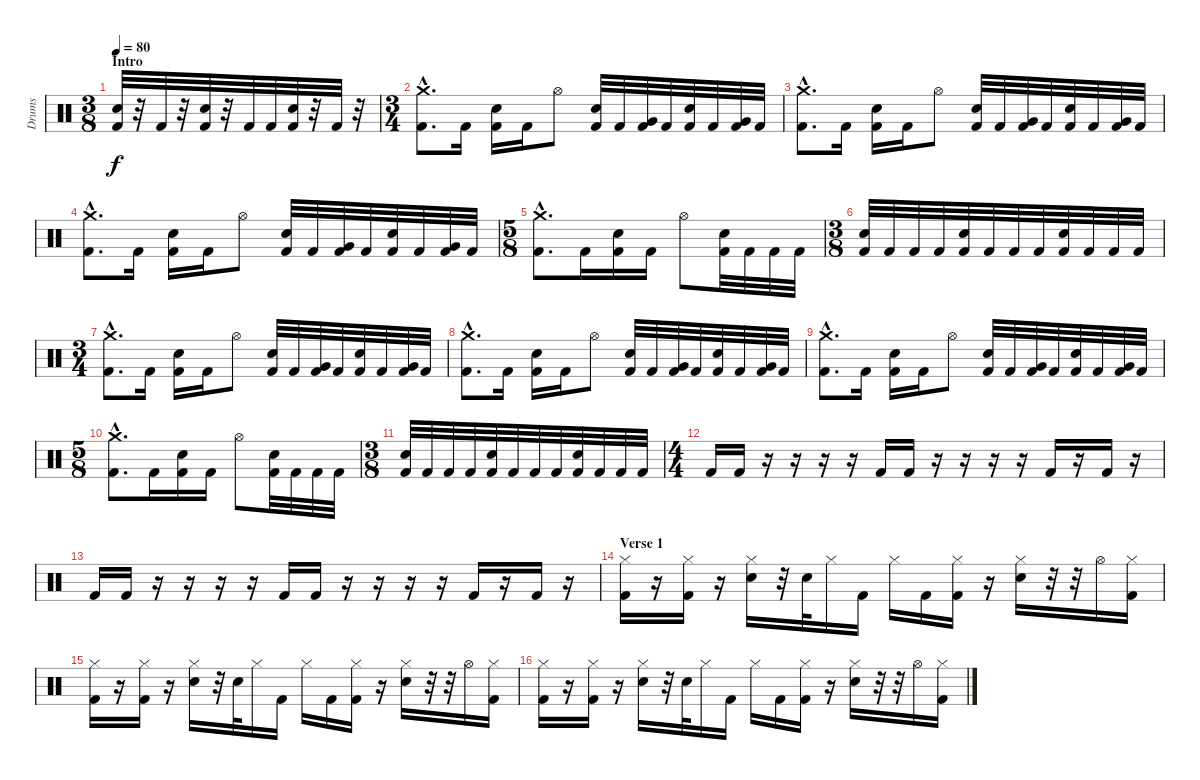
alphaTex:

\track ("Drums" "Drums") {instrument percussion}
\staff {score}
\articulation defaults
\ts (3 8)
\section ("" "Intro")
\tempo 80
\clef neutral
\ks c
("Snare (hit) 2" "Kick (hit) 2").32{dy f} r.32 "Kick (hit) 2".32 r.32 ("Snare (hit) 2" "Kick (hit) 2").32 r.32 "Kick (hit) 2".32 "Kick (hit) 2".32 ("Snare (hit) 2" "Kick (hit) 2").32 r.32 "Kick (hit) 2".32 r.32 |
\ts (3 4)
("Crash medium (hit)"{hac} "Kick (hit) 2"{hac}).8{d} "Kick (hit) 2".16 ("Snare (hit) 2" "Kick (hit) 2").16 "Kick (hit) 2".16 "Hi-Hat (open)".8 ("Snare (hit) 2" "Kick (hit) 2").32 "Kick (hit) 2".32 ("Very Low Tom (hit)" "Kick (hit) 2").32 "Kick (hit) 2".32 ("Snare (hit) 2" "Kick (hit) 2").32 "Kick (hit) 2".32 ("Very Low Tom (hit)" "Kick (hit) 2").32 "Kick (hit) 2".32 |
("Crash medium (hit)"{hac} "Kick (hit) 2"{hac}).8{d} "Kick (hit) 2".16 ("Snare (hit) 2" "Kick (hit) 2").16 "Kick (hit) 2".16 "Hi-Hat (open)".8 ("Snare (hit) 2" "Kick (hit) 2").32 "Kick (hit) 2".32 ("Very Low Tom (hit)" "Kick (hit) 2").32 "Kick (hit) 2".32 ("Snare (hit) 2" "Kick (hit) 2").32 "Kick (hit) 2".32 ("Very Low Tom (hit)" "Kick (hit) 2").32 "Kick (hit) 2".32 |
("Crash medium (hit)"{hac} "Kick (hit) 2"{hac}).8{d} "Kick (hit) 2".16 ("Snare (hit) 2" "Kick (hit) 2").16 "Kick (hit) 2".16 "Hi-Hat (open)".8 ("Snare (hit) 2" "Kick (hit) 2").32 "Kick (hit) 2".32 ("Very Low Tom (hit)" "Kick (hit) 2").32 "Kick (hit) 2".32 ("Snare (hit) 2" "Kick (hit) 2").32 "Kick (hit) 2".32 ("Very Low Tom (hit)" "Kick (hit) 2").32 "Kick (hit) 2".32 |
\ts (5 8)
("Crash medium (hit)"{hac} "Kick (hit) 2"{hac}).8{d} "Kick (hit) 2".16 ("Snare (hit) 2" "Kick (hit) 2").16 "Kick (hit) 2".16 "Hi-Hat (open)".8 ("Snare (hit) 2" "Kick (hit) 2").32 "Kick (hit) 2".32 "Kick (hit) 2".32 "Kick (hit) 2".32 |
\ts (3 8)
("Snare (hit) 2" "Kick (hit) 2").32 "Kick (hit) 2".32 "Kick (hit) 2".32 "Kick (hit) 2".32 ("Snare (hit) 2" "Kick (hit) 2").32 "Kick (hit) 2".32 "Kick (hit) 2".32 "Kick (hit) 2".32 ("Snare (hit) 2" "Kick (hit) 2").32 "Kick (hit) 2".32 "Kick (hit) 2".32 "Kick (hit) 2".32 |
\ts (3 4)
("Crash medium (hit)"{hac} "Kick (hit) 2"{hac}).8{d} "Kick (hit) 2".16 ("Snare (hit) 2" "Kick (hit) 2").16 "Kick (hit) 2".16 "Hi-Hat (open)".8 ("Snare (hit) 2" "Kick (hit) 2").32 "Kick (hit) 2".32 ("Very Low Tom (hit)" "Kick (hit) 2").32 "Kick (hit) 2".32 ("Snare (hit) 2" "Kick (hit) 2").32 "Kick (hit) 2".32 ("Very Low Tom (hit)" "Kick (hit) 2").32 "Kick (hit) 2".32 |
("Crash medium (hit)"{hac} "Kick (hit) 2"{hac}).8{d} "Kick (hit) 2".16 ("Snare (hit) 2" "Kick (hit) 2").16 "Kick (hit) 2".16 "Hi-Hat (open)".8 ("Snare (hit) 2" "Kick (hit) 2").32 "Kick (hit) 2".32 ("Very Low Tom (hit)" "Kick (hit) 2").32 "Kick (hit) 2".32 ("Snare (hit) 2" "Kick (hit) 2").32 "Kick (hit) 2".32 ("Very Low Tom (hit)" "Kick (hit) 2").32 "Kick (hit) 2".32 |
("Crash medium (hit)"{hac} "Kick (hit) 2"{hac}).8{d} "Kick (hit) 2".16 ("Snare (hit) 2" "Kick (hit) 2").16 "Kick (hit) 2".16 "Hi-Hat (open)".8 ("Snare (hit) 2" "Kick (hit) 2").32 "Kick (hit) 2".32 ("Very Low Tom (hit)" "Kick (hit) 2").32 "Kick (hit) 2".32 ("Snare (hit) 2" "Kick (hit) 2").32 "Kick (hit) 2".32 ("Very Low Tom (hit)" "Kick (hit) 2").32 "Kick (hit) 2".32 |
\ts (5 8)
("Crash medium (hit)"{hac} "Kick (hit) 2"{hac}).8{d} "Kick (hit) 2".16 ("Snare (hit) 2" "Kick (hit) 2").16 "Kick (hit) 2".16 "Hi-Hat (open)".8 ("Snare (hit) 2" "Kick (hit) 2").32 "Kick (hit) 2".32 "Kick (hit) 2".32 "Kick (hit) 2".32 |
\ts (3 8)
("Snare (hit) 2" "Kick (hit) 2").32 "Kick (hit) 2".32 "Kick (hit) 2".32 "Kick (hit) 2".32 ("Snare (hit) 2" "Kick (hit) 2").32 "Kick (hit) 2".32 "Kick (hit) 2".32 "Kick (hit) 2".32 ("Snare (hit) 2" "Kick (hit) 2").32 "Kick (hit) 2".32 "Kick (hit) 2".32 "Kick (hit) 2".32 |
\ts (4 4)
"Kick (hit) 2".16 "Kick (hit) 2".16 r.16 r.16 r.16 r.16 "Kick (hit) 2".16 "Kick (hit) 2".16 r.16 r.16 r.16 r.16 "Kick (hit) 2".16 r.16 "Kick (hit) 2".16 r.16 |
"Kick (hit) 2".16 "Kick (hit) 2".16 r.16 r.16 r.16 r.16 "Kick (hit) 2".16 "Kick (hit) 2".16 r.16 r.16 r.16 r.16 "Kick (hit) 2".16 r.16 "Kick (hit) 2".16 r.16 |
\section ("" "Verse 1")
("Hi-Hat (closed)" "Kick (hit) 2").16 r.16 ("Hi-Hat (closed)" "Kick (hit) 2").16 r.16 ("Hi-Hat (closed)" "Snare (hit) 2").16 r.32 "Snare (hit) 2".32 "Hi-Hat (closed)".16 "Kick (hit) 2".16 "Hi-Hat (closed)".16 "Kick (hit) 2".16 ("Hi-Hat (closed)" "Kick (hit) 2").16 r.16 ("Hi-Hat (closed)" "Snare (hit) 2").16 r.32 r.32 "Hi-Hat (open)".16 ("Hi-Hat (closed)" "Kick (hit) 2").16 |
("Hi-Hat (closed)" "Kick (hit) 2").16 r.16 ("Hi-Hat (closed)" "Kick (hit) 2").16 r.16 ("Hi-Hat (closed)" "Snare (hit) 2").16 r.32 "Snare (hit) 2".32 "Hi-Hat (closed)".16 "Kick (hit) 2".16 "Hi-Hat (closed)".16 "Kick (hit) 2".16 ("Hi-Hat (closed)" "Kick (hit) 2").16 r.16 ("Hi-Hat (closed)" "Snare (hit) 2").16 r.32 r.32 "Hi-Hat (open)".16 ("Hi-Hat (closed)" "Kick (hit) 2").16 |
("Hi-Hat (closed)" "Kick (hit) 2").16 r.16 ("Hi-Hat (closed)" "Kick (hit) 2").16 r.16 ("Hi-Hat (closed)" "Snare (hit) 2").16 r.32 "Snare (hit) 2".32 "Hi-Hat (closed)".16 "Kick (hit) 2".16 "Hi-Hat (closed)".16 "Kick (hit) 2".16 ("Hi-Hat (closed)" "Kick (hit) 2").16 r.16 ("Hi-Hat (closed)" "Snare (hit) 2").16 r.32 r.32 "Hi-Hat (open)".16 ("Hi-Hat (closed)" "Kick (hit) 2").16
